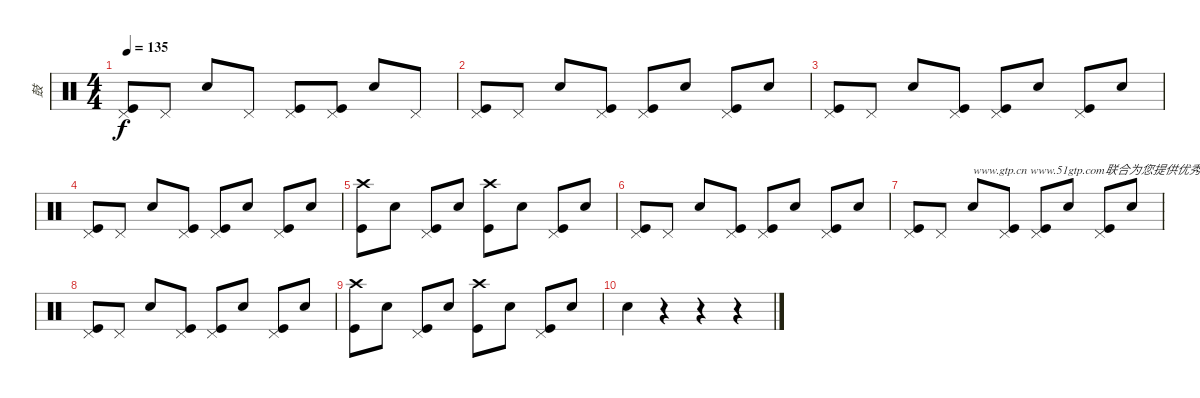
\track ("鼓" "鼓") {instrument percussion}
\staff {score}
\articulation defaults
\ts (4 4)
\tempo 135
\clef neutral
\ks c
("Pedal Hi-Hat (hit)" "Kick (hit)").8{dy f} "Pedal Hi-Hat (hit)".8 "Snare (hit) 2".8 "Pedal Hi-Hat (hit)".8 ("Pedal Hi-Hat (hit)" "Kick (hit)").8 ("Pedal Hi-Hat (hit)" "Kick (hit)").8 "Snare (hit) 2".8 "Pedal Hi-Hat (hit)".8 |
("Pedal Hi-Hat (hit)" "Kick (hit)").8 "Pedal Hi-Hat (hit)".8 "Snare (hit) 2".8 ("Pedal Hi-Hat (hit)" "Kick (hit)").8 ("Pedal Hi-Hat (hit)" "Kick (hit)").8 "Snare (hit) 2".8 ("Pedal Hi-Hat (hit)" "Kick (hit)").8 "Snare (hit) 2".8 |
("Pedal Hi-Hat (hit)" "Kick (hit)").8 "Pedal Hi-Hat (hit)".8 "Snare (hit) 2".8 ("Pedal Hi-Hat (hit)" "Kick (hit)").8 ("Pedal Hi-Hat (hit)" "Kick (hit)").8 "Snare (hit) 2".8 ("Pedal Hi-Hat (hit)" "Kick (hit)").8 "Snare (hit) 2".8 |
("Pedal Hi-Hat (hit)" "Kick (hit)").8 "Pedal Hi-Hat (hit)".8 "Snare (hit) 2".8 ("Pedal Hi-Hat (hit)" "Kick (hit)").8 ("Pedal Hi-Hat (hit)" "Kick (hit)").8 "Snare (hit) 2".8 ("Pedal Hi-Hat (hit)" "Kick (hit)").8 "Snare (hit) 2".8 |
("Crash high (hit)" "Kick (hit)").8 "Snare (hit) 2".8 ("Pedal Hi-Hat (hit)" "Kick (hit)").8 "Snare (hit) 2".8 ("Crash high (hit)" "Kick (hit)").8 "Snare (hit) 2".8 ("Pedal Hi-Hat (hit)" "Kick (hit)").8 "Snare (hit) 2".8 |
("Pedal Hi-Hat (hit)" "Kick (hit)").8 "Pedal Hi-Hat (hit)".8 "Snare (hit) 2".8 ("Pedal Hi-Hat (hit)" "Kick (hit)").8 ("Pedal Hi-Hat (hit)" "Kick (hit)").8 "Snare (hit) 2".8 ("Pedal Hi-Hat (hit)" "Kick (hit)").8 "Snare (hit) 2".8 |
("Pedal Hi-Hat (hit)" "Kick (hit)").8 "Pedal Hi-Hat (hit)".8 "Snare (hit) 2".8{txt "www.gtp.cn www.51gtp.com联合为您提供优秀的GTP!"} ("Pedal Hi-Hat (hit)" "Kick (hit)").8 ("Pedal Hi-Hat (hit)" "Kick (hit)").8 "Snare (hit) 2".8 ("Pedal Hi-Hat (hit)" "Kick (hit)").8 "Snare (hit) 2".8 |
("Pedal Hi-Hat (hit)" "Kick (hit)").8 "Pedal Hi-Hat (hit)".8 "Snare (hit) 2".8 ("Pedal Hi-Hat (hit)" "Kick (hit)").8 ("Pedal Hi-Hat (hit)" "Kick (hit)").8 "Snare (hit) 2".8 ("Pedal Hi-Hat (hit)" "Kick (hit)").8 "Snare (hit) 2".8 |
("Crash high (hit)" "Kick (hit)").8 "Snare (hit) 2".8 ("Pedal Hi-Hat (hit)" "Kick (hit)").8 "Snare (hit) 2".8 ("Crash high (hit)" "Kick (hit)").8 "Snare (hit) 2".8 ("Pedal Hi-Hat (hit)" "Kick (hit)").8 "Snare (hit) 2".8 |
"Snare (hit) 2".4 r.4 r.4 r.4
